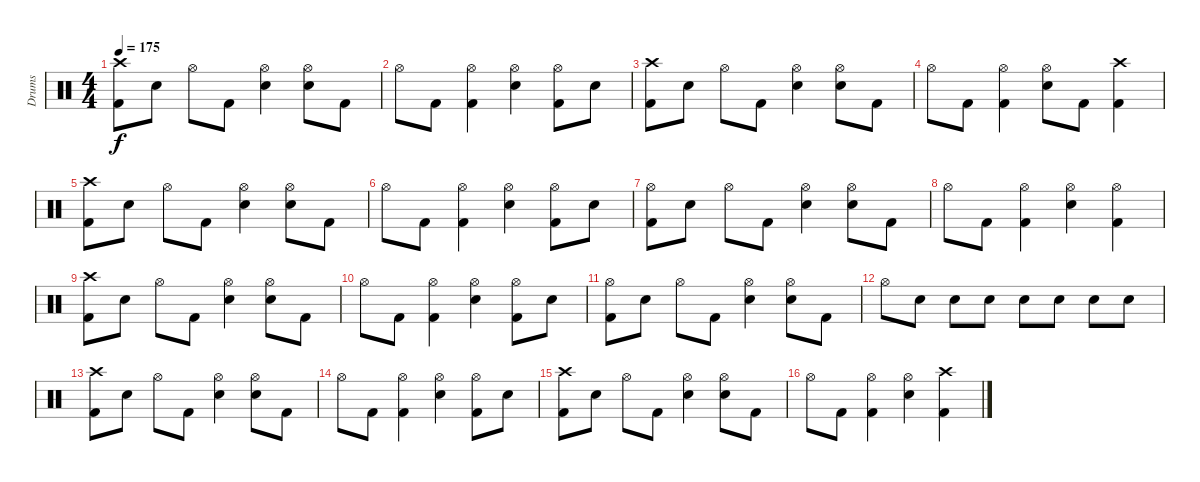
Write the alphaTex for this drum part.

\track ("Drums" "Drums") {instrument percussion}
\staff {score}
\articulation defaults
\ts (4 4)
\tempo 175
\clef neutral
\ks c
("Crash high (hit)" "Kick (hit) 2").8{dy f} "Electric Snare (hit)".8 "Hi-Hat (open)".8 "Kick (hit) 2".8 ("Hi-Hat (open)" "Electric Snare (hit)").4 ("Hi-Hat (open)" "Electric Snare (hit)").8 "Kick (hit) 2".8 |
"Hi-Hat (open)".8 "Kick (hit) 2".8 ("Hi-Hat (open)" "Kick (hit) 2").4 ("Hi-Hat (open)" "Electric Snare (hit)").4 ("Hi-Hat (open)" "Kick (hit) 2").8 "Electric Snare (hit)".8 |
("Crash high (hit)" "Kick (hit) 2").8 "Electric Snare (hit)".8 "Hi-Hat (open)".8 "Kick (hit) 2".8 ("Hi-Hat (open)" "Electric Snare (hit)").4 ("Hi-Hat (open)" "Electric Snare (hit)").8 "Kick (hit) 2".8 |
"Hi-Hat (open)".8 "Kick (hit) 2".8 ("Hi-Hat (open)" "Kick (hit) 2").4 ("Hi-Hat (open)" "Electric Snare (hit)").8 "Kick (hit) 2".8 ("Crash high (hit)" "Kick (hit) 2").4 |
("Crash high (hit)" "Kick (hit) 2").8 "Electric Snare (hit)".8 "Hi-Hat (open)".8 "Kick (hit) 2".8 ("Hi-Hat (open)" "Electric Snare (hit)").4 ("Hi-Hat (open)" "Electric Snare (hit)").8 "Kick (hit) 2".8 |
"Hi-Hat (open)".8 "Kick (hit) 2".8 ("Hi-Hat (open)" "Kick (hit) 2").4 ("Hi-Hat (open)" "Electric Snare (hit)").4 ("Hi-Hat (open)" "Kick (hit) 2").8 "Electric Snare (hit)".8 |
("Hi-Hat (open)" "Kick (hit) 2").8 "Electric Snare (hit)".8 "Hi-Hat (open)".8 "Kick (hit) 2".8 ("Hi-Hat (open)" "Electric Snare (hit)").4 ("Hi-Hat (open)" "Electric Snare (hit)").8 "Kick (hit) 2".8 |
"Hi-Hat (open)".8 "Kick (hit) 2".8 ("Hi-Hat (open)" "Kick (hit) 2").4 ("Hi-Hat (open)" "Electric Snare (hit)").4 ("Hi-Hat (open)" "Kick (hit) 2").4 |
("Crash high (hit)" "Kick (hit) 2").8 "Electric Snare (hit)".8 "Hi-Hat (open)".8 "Kick (hit) 2".8 ("Hi-Hat (open)" "Electric Snare (hit)").4 ("Hi-Hat (open)" "Electric Snare (hit)").8 "Kick (hit) 2".8 |
"Hi-Hat (open)".8 "Kick (hit) 2".8 ("Hi-Hat (open)" "Kick (hit) 2").4 ("Hi-Hat (open)" "Electric Snare (hit)").4 ("Hi-Hat (open)" "Kick (hit) 2").8 "Electric Snare (hit)".8 |
("Hi-Hat (open)" "Kick (hit) 2").8 "Electric Snare (hit)".8 "Hi-Hat (open)".8 "Kick (hit) 2".8 ("Hi-Hat (open)" "Electric Snare (hit)").4 ("Hi-Hat (open)" "Electric Snare (hit)").8 "Kick (hit) 2".8 |
"Hi-Hat (open)".8 "Electric Snare (hit)".8 "Electric Snare (hit)".8 "Electric Snare (hit)".8 "Electric Snare (hit)".8 "Electric Snare (hit)".8 "Electric Snare (hit)".8 "Electric Snare (hit)".8 |
("Crash high (hit)" "Kick (hit) 2").8 "Electric Snare (hit)".8 "Hi-Hat (open)".8 "Kick (hit) 2".8 ("Hi-Hat (open)" "Electric Snare (hit)").4 ("Hi-Hat (open)" "Electric Snare (hit)").8 "Kick (hit) 2".8 |
"Hi-Hat (open)".8 "Kick (hit) 2".8 ("Hi-Hat (open)" "Kick (hit) 2").4 ("Hi-Hat (open)" "Electric Snare (hit)").4 ("Hi-Hat (open)" "Kick (hit) 2").8 "Electric Snare (hit)".8 |
("Crash high (hit)" "Kick (hit) 2").8 "Electric Snare (hit)".8 "Hi-Hat (open)".8 "Kick (hit) 2".8 ("Hi-Hat (open)" "Electric Snare (hit)").4 ("Hi-Hat (open)" "Electric Snare (hit)").8 "Kick (hit) 2".8 |
"Hi-Hat (open)".8 "Kick (hit) 2".8 ("Hi-Hat (open)" "Kick (hit) 2").4 ("Hi-Hat (open)" "Electric Snare (hit)").4 ("Crash high (hit)" "Kick (hit) 2").4
